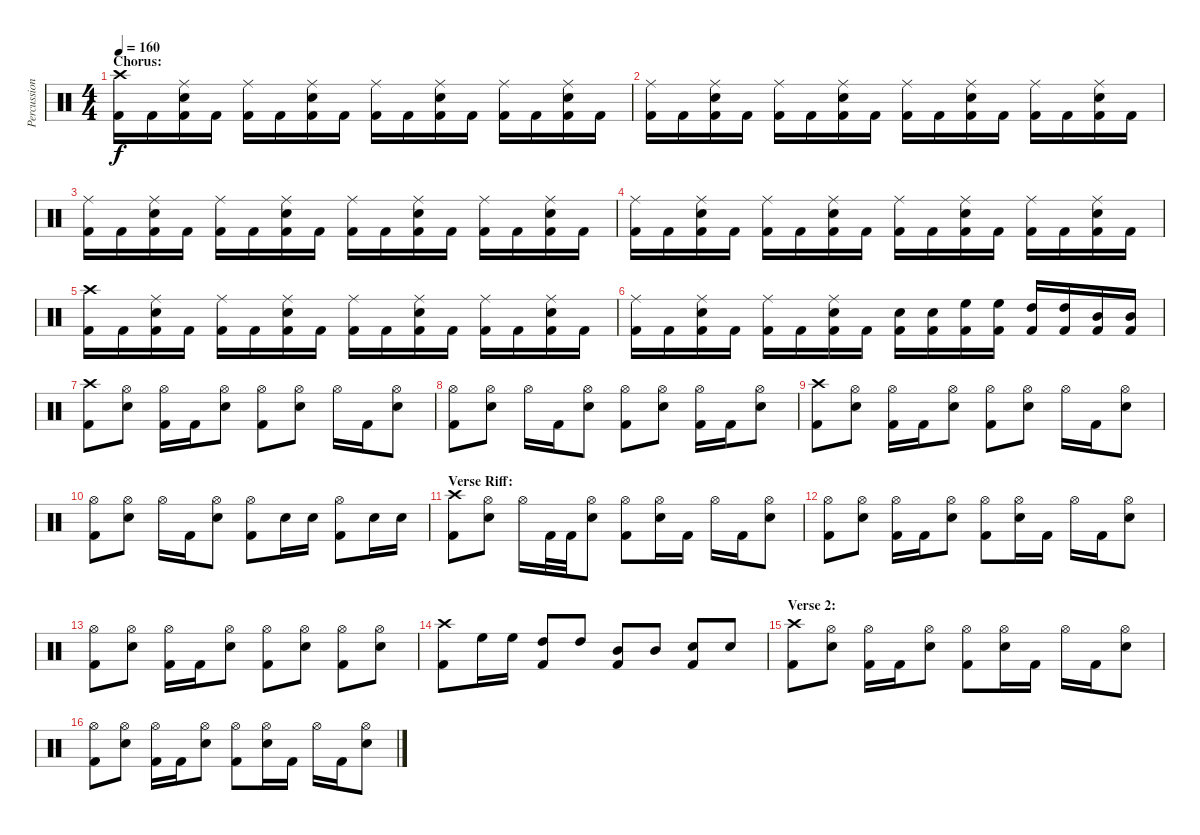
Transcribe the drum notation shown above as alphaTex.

\track ("Percussion" "Percussion") {instrument percussion}
\staff {score}
\articulation defaults
\ts (4 4)
\section ("" "Chorus:")
\tempo 160
\clef neutral
\ks c
("Crash high (hit)" "Kick (hit) 2").16{dy f} "Kick (hit) 2".16 ("Ride (middle)" "Electric Snare (hit)" "Kick (hit) 2").16 "Kick (hit) 2".16 ("Ride (middle)" "Kick (hit) 2").16 "Kick (hit) 2".16 ("Ride (middle)" "Electric Snare (hit)" "Kick (hit) 2").16 "Kick (hit) 2".16 ("Ride (middle)" "Kick (hit) 2").16 "Kick (hit) 2".16 ("Ride (middle)" "Electric Snare (hit)" "Kick (hit) 2").16 "Kick (hit) 2".16 ("Ride (middle)" "Kick (hit) 2").16 "Kick (hit) 2".16 ("Ride (middle)" "Electric Snare (hit)" "Kick (hit) 2").16 "Kick (hit) 2".16 |
("Ride (middle)" "Kick (hit) 2").16 "Kick (hit) 2".16 ("Ride (middle)" "Electric Snare (hit)" "Kick (hit) 2").16 "Kick (hit) 2".16 ("Ride (middle)" "Kick (hit) 2").16 "Kick (hit) 2".16 ("Ride (middle)" "Electric Snare (hit)" "Kick (hit) 2").16 "Kick (hit) 2".16 ("Ride (middle)" "Kick (hit) 2").16 "Kick (hit) 2".16 ("Ride (middle)" "Electric Snare (hit)" "Kick (hit) 2").16 "Kick (hit) 2".16 ("Ride (middle)" "Kick (hit) 2").16 "Kick (hit) 2".16 ("Ride (middle)" "Electric Snare (hit)" "Kick (hit) 2").16 "Kick (hit) 2".16 |
("Ride (middle)" "Kick (hit) 2").16 "Kick (hit) 2".16 ("Ride (middle)" "Electric Snare (hit)" "Kick (hit) 2").16 "Kick (hit) 2".16 ("Ride (middle)" "Kick (hit) 2").16 "Kick (hit) 2".16 ("Ride (middle)" "Electric Snare (hit)" "Kick (hit) 2").16 "Kick (hit) 2".16 ("Ride (middle)" "Kick (hit) 2").16 "Kick (hit) 2".16 ("Ride (middle)" "Electric Snare (hit)" "Kick (hit) 2").16 "Kick (hit) 2".16 ("Ride (middle)" "Kick (hit) 2").16 "Kick (hit) 2".16 ("Ride (middle)" "Electric Snare (hit)" "Kick (hit) 2").16 "Kick (hit) 2".16 |
("Ride (middle)" "Kick (hit) 2").16 "Kick (hit) 2".16 ("Ride (middle)" "Electric Snare (hit)" "Kick (hit) 2").16 "Kick (hit) 2".16 ("Ride (middle)" "Kick (hit) 2").16 "Kick (hit) 2".16 ("Ride (middle)" "Electric Snare (hit)" "Kick (hit) 2").16 "Kick (hit) 2".16 ("Ride (middle)" "Kick (hit) 2").16 "Kick (hit) 2".16 ("Ride (middle)" "Electric Snare (hit)" "Kick (hit) 2").16 "Kick (hit) 2".16 ("Ride (middle)" "Kick (hit) 2").16 "Kick (hit) 2".16 ("Ride (middle)" "Electric Snare (hit)" "Kick (hit) 2").16 "Kick (hit) 2".16 |
("Crash high (hit)" "Kick (hit) 2").16 "Kick (hit) 2".16 ("Ride (middle)" "Electric Snare (hit)" "Kick (hit) 2").16 "Kick (hit) 2".16 ("Ride (middle)" "Kick (hit) 2").16 "Kick (hit) 2".16 ("Ride (middle)" "Electric Snare (hit)" "Kick (hit) 2").16 "Kick (hit) 2".16 ("Ride (middle)" "Kick (hit) 2").16 "Kick (hit) 2".16 ("Ride (middle)" "Electric Snare (hit)" "Kick (hit) 2").16 "Kick (hit) 2".16 ("Ride (middle)" "Kick (hit) 2").16 "Kick (hit) 2".16 ("Ride (middle)" "Electric Snare (hit)" "Kick (hit) 2").16 "Kick (hit) 2".16 |
("Ride (middle)" "Kick (hit) 2").16 "Kick (hit) 2".16 ("Ride (middle)" "Electric Snare (hit)" "Kick (hit) 2").16 "Kick (hit) 2".16 ("Ride (middle)" "Kick (hit) 2").16 "Kick (hit) 2".16 ("Ride (middle)" "Electric Snare (hit)" "Kick (hit) 2").16 "Kick (hit) 2".16 ("Electric Snare (hit)" "Kick (hit) 2").16 ("Electric Snare (hit)" "Kick (hit) 2").16 ("High Floor Tom (hit)" "Kick (hit) 2").16 ("High Floor Tom (hit)" "Kick (hit) 2").16 ("High Tom (hit)" "Kick (hit) 2").16 ("High Tom (hit)" "Kick (hit) 2").16 ("Mid Tom (hit)" "Kick (hit) 2").16 ("Mid Tom (hit)" "Kick (hit) 2").16 |
("Crash high (hit)" "Kick (hit) 2").8 ("Hi-Hat (open)" "Electric Snare (hit)").8 ("Hi-Hat (open)" "Kick (hit) 2").16 "Kick (hit) 2".16 ("Hi-Hat (open)" "Electric Snare (hit)").8 ("Hi-Hat (open)" "Kick (hit) 2").8 ("Hi-Hat (open)" "Electric Snare (hit)").8 "Hi-Hat (open)".16 "Kick (hit) 2".16 ("Hi-Hat (open)" "Electric Snare (hit)").8 |
("Hi-Hat (open)" "Kick (hit) 2").8 ("Hi-Hat (open)" "Electric Snare (hit)").8 "Hi-Hat (open)".16 "Kick (hit) 2".16 ("Hi-Hat (open)" "Electric Snare (hit)").8 ("Hi-Hat (open)" "Kick (hit) 2").8 ("Hi-Hat (open)" "Electric Snare (hit)").8 ("Hi-Hat (open)" "Kick (hit) 2").16 "Kick (hit) 2".16 ("Hi-Hat (open)" "Electric Snare (hit)").8 |
("Crash high (hit)" "Kick (hit) 2").8 ("Hi-Hat (open)" "Electric Snare (hit)").8 ("Hi-Hat (open)" "Kick (hit) 2").16 "Kick (hit) 2".16 ("Hi-Hat (open)" "Electric Snare (hit)").8 ("Hi-Hat (open)" "Kick (hit) 2").8 ("Hi-Hat (open)" "Electric Snare (hit)").8 "Hi-Hat (open)".16 "Kick (hit) 2".16 ("Hi-Hat (open)" "Electric Snare (hit)").8 |
("Hi-Hat (open)" "Kick (hit) 2").8 ("Hi-Hat (open)" "Electric Snare (hit)").8 "Hi-Hat (open)".16 "Kick (hit) 2".16 ("Hi-Hat (open)" "Electric Snare (hit)").8 ("Hi-Hat (open)" "Kick (hit) 2").8 "Electric Snare (hit)".16 "Electric Snare (hit)".16 ("Hi-Hat (open)" "Kick (hit) 2").8 "Electric Snare (hit)".16 "Electric Snare (hit)".16 |
\section ("" "Verse Riff:")
("Crash high (hit)" "Kick (hit) 2").8 ("Hi-Hat (open)" "Electric Snare (hit)").8 "Hi-Hat (open)".16 "Kick (hit) 2".32 "Kick (hit) 2".32 ("Hi-Hat (open)" "Electric Snare (hit)").8 ("Hi-Hat (open)" "Kick (hit) 2").8 ("Hi-Hat (open)" "Electric Snare (hit)").16 "Kick (hit) 2".16 "Hi-Hat (open)".16 "Kick (hit) 2".16 ("Hi-Hat (open)" "Electric Snare (hit)").8 |
("Hi-Hat (open)" "Kick (hit) 2").8 ("Hi-Hat (open)" "Electric Snare (hit)").8 ("Hi-Hat (open)" "Kick (hit) 2").16 "Kick (hit) 2".16 ("Hi-Hat (open)" "Electric Snare (hit)").8 ("Hi-Hat (open)" "Kick (hit) 2").8 ("Hi-Hat (open)" "Electric Snare (hit)").16 "Kick (hit) 2".16 "Hi-Hat (open)".16 "Kick (hit) 2".16 ("Hi-Hat (open)" "Electric Snare (hit)").8 |
("Hi-Hat (open)" "Kick (hit) 2").8 ("Hi-Hat (open)" "Electric Snare (hit)").8 ("Hi-Hat (open)" "Kick (hit) 2").16 "Kick (hit) 2".16 ("Hi-Hat (open)" "Electric Snare (hit)").8 ("Hi-Hat (open)" "Kick (hit) 2").8 ("Hi-Hat (open)" "Electric Snare (hit)").8 ("Hi-Hat (open)" "Kick (hit) 2").8 ("Hi-Hat (open)" "Electric Snare (hit)").8 |
("Crash high (hit)" "Kick (hit) 2").8 "High Floor Tom (hit)".16 "High Floor Tom (hit)".16 ("High Tom (hit)" "Kick (hit) 2").8 "High Tom (hit)".8 ("Mid Tom (hit)" "Kick (hit) 2").8 "Mid Tom (hit)".8 ("Electric Snare (hit)" "Kick (hit) 2").8 "Electric Snare (hit)".8 |
\section ("" "Verse 2:")
("Crash high (hit)" "Kick (hit) 2").8 ("Hi-Hat (open)" "Electric Snare (hit)").8 ("Hi-Hat (open)" "Kick (hit) 2").16 "Kick (hit) 2".16 ("Hi-Hat (open)" "Electric Snare (hit)").8 ("Hi-Hat (open)" "Kick (hit) 2").8 ("Hi-Hat (open)" "Electric Snare (hit)").16 "Kick (hit) 2".16 "Hi-Hat (open)".16 "Kick (hit) 2".16 ("Hi-Hat (open)" "Electric Snare (hit)").8 |
("Hi-Hat (open)" "Kick (hit) 2").8 ("Hi-Hat (open)" "Electric Snare (hit)").8 ("Hi-Hat (open)" "Kick (hit) 2").16 "Kick (hit) 2".16 ("Hi-Hat (open)" "Electric Snare (hit)").8 ("Hi-Hat (open)" "Kick (hit) 2").8 ("Hi-Hat (open)" "Electric Snare (hit)").16 "Kick (hit) 2".16 "Hi-Hat (open)".16 "Kick (hit) 2".16 ("Hi-Hat (open)" "Electric Snare (hit)").8
